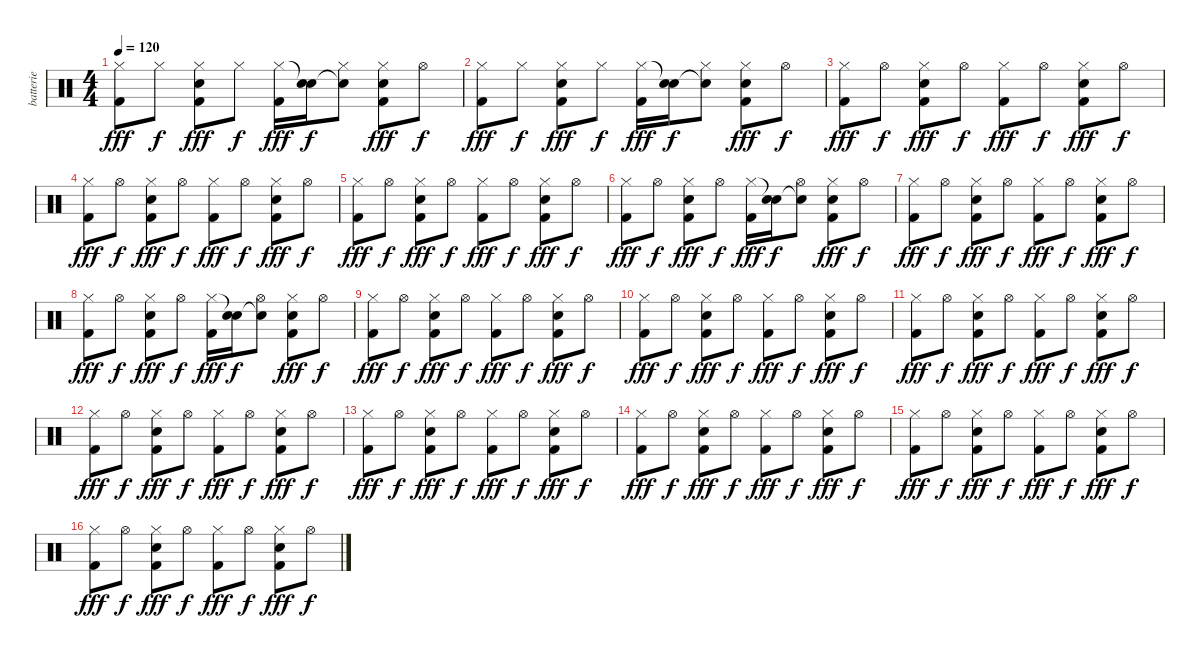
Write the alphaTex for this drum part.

\track ("batterie" "batterie") {instrument percussion}
\staff {score}
\articulation defaults
\ts (4 4)
\tempo 120
\clef neutral
\ks c
("Hi-Hat (closed)" "Kick (hit) 2").8{dy fff} "Hi-Hat (closed)".8{dy f} ("Hi-Hat (closed)" "Electric Snare (hit)" "Kick (hit) 2").8{dy fff} "Hi-Hat (closed)".8{dy f} ("Hi-Hat (closed)" "Kick (hit) 2").16{dy fff} ("Snare (hit)"{t} "Electric Snare (hit)").16{dy f} ("Hi-Hat (closed)" "Electric Snare (hit)"{t}).8 ("Hi-Hat (closed)" "Electric Snare (hit)" "Kick (hit) 2").8{dy fff} "Hi-Hat (open)".8{dy f} |
("Hi-Hat (closed)" "Kick (hit) 2").8{dy fff} "Hi-Hat (closed)".8{dy f} ("Hi-Hat (closed)" "Electric Snare (hit)" "Kick (hit) 2").8{dy fff} "Hi-Hat (closed)".8{dy f} ("Hi-Hat (closed)" "Kick (hit) 2").16{dy fff} ("Snare (hit)"{t} "Electric Snare (hit)").16{dy f} ("Hi-Hat (closed)" "Electric Snare (hit)"{t}).8 ("Hi-Hat (closed)" "Electric Snare (hit)" "Kick (hit) 2").8{dy fff} "Hi-Hat (open)".8{dy f} |
("Hi-Hat (closed)" "Kick (hit) 2").8{dy fff} "Hi-Hat (open)".8{dy f} ("Hi-Hat (closed)" "Electric Snare (hit)" "Kick (hit) 2").8{dy fff} "Hi-Hat (open)".8{dy f} ("Hi-Hat (closed)" "Kick (hit) 2").8{dy fff} "Hi-Hat (open)".8{dy f} ("Hi-Hat (closed)" "Electric Snare (hit)" "Kick (hit) 2").8{dy fff} "Hi-Hat (open)".8{dy f} |
("Hi-Hat (closed)" "Kick (hit) 2").8{dy fff} "Hi-Hat (open)".8{dy f} ("Hi-Hat (closed)" "Electric Snare (hit)" "Kick (hit) 2").8{dy fff} "Hi-Hat (open)".8{dy f} ("Hi-Hat (closed)" "Kick (hit) 2").8{dy fff} "Hi-Hat (open)".8{dy f} ("Hi-Hat (closed)" "Electric Snare (hit)" "Kick (hit) 2").8{dy fff} "Hi-Hat (open)".8{dy f} |
("Hi-Hat (closed)" "Kick (hit) 2").8{dy fff} "Hi-Hat (open)".8{dy f} ("Hi-Hat (closed)" "Electric Snare (hit)" "Kick (hit) 2").8{dy fff} "Hi-Hat (open)".8{dy f} ("Hi-Hat (closed)" "Kick (hit) 2").8{dy fff} "Hi-Hat (open)".8{dy f} ("Hi-Hat (closed)" "Electric Snare (hit)" "Kick (hit) 2").8{dy fff} "Hi-Hat (open)".8{dy f} |
("Hi-Hat (closed)" "Kick (hit) 2").8{dy fff} "Hi-Hat (open)".8{dy f} ("Hi-Hat (closed)" "Electric Snare (hit)" "Kick (hit) 2").8{dy fff} "Hi-Hat (open)".8{dy f} ("Hi-Hat (closed)" "Kick (hit) 2").16{dy fff} ("Snare (hit)"{t} "Electric Snare (hit)").16{dy f} ("Hi-Hat (open)" "Electric Snare (hit)"{t}).8 ("Hi-Hat (closed)" "Electric Snare (hit)" "Kick (hit) 2").8{dy fff} "Hi-Hat (open)".8{dy f} |
("Hi-Hat (closed)" "Kick (hit) 2").8{dy fff} "Hi-Hat (open)".8{dy f} ("Hi-Hat (closed)" "Electric Snare (hit)" "Kick (hit) 2").8{dy fff} "Hi-Hat (open)".8{dy f} ("Hi-Hat (closed)" "Kick (hit) 2").8{dy fff} "Hi-Hat (open)".8{dy f} ("Hi-Hat (closed)" "Electric Snare (hit)" "Kick (hit) 2").8{dy fff} "Hi-Hat (open)".8{dy f} |
("Hi-Hat (closed)" "Kick (hit) 2").8{dy fff} "Hi-Hat (open)".8{dy f} ("Hi-Hat (closed)" "Electric Snare (hit)" "Kick (hit) 2").8{dy fff} "Hi-Hat (open)".8{dy f} ("Hi-Hat (closed)" "Kick (hit) 2").16{dy fff} ("Snare (hit)"{t} "Electric Snare (hit)").16{dy f} ("Hi-Hat (open)" "Electric Snare (hit)"{t}).8 ("Hi-Hat (closed)" "Electric Snare (hit)" "Kick (hit) 2").8{dy fff} "Hi-Hat (open)".8{dy f} |
("Hi-Hat (closed)" "Kick (hit) 2").8{dy fff} "Hi-Hat (open)".8{dy f} ("Hi-Hat (closed)" "Electric Snare (hit)" "Kick (hit) 2").8{dy fff} "Hi-Hat (open)".8{dy f} ("Hi-Hat (closed)" "Kick (hit) 2").8{dy fff} "Hi-Hat (open)".8{dy f} ("Hi-Hat (closed)" "Electric Snare (hit)" "Kick (hit) 2").8{dy fff} "Hi-Hat (open)".8{dy f} |
("Hi-Hat (closed)" "Kick (hit) 2").8{dy fff} "Hi-Hat (open)".8{dy f} ("Hi-Hat (closed)" "Electric Snare (hit)" "Kick (hit) 2").8{dy fff} "Hi-Hat (open)".8{dy f} ("Hi-Hat (closed)" "Kick (hit) 2").8{dy fff} "Hi-Hat (open)".8{dy f} ("Hi-Hat (closed)" "Electric Snare (hit)" "Kick (hit) 2").8{dy fff} "Hi-Hat (open)".8{dy f} |
("Hi-Hat (closed)" "Kick (hit) 2").8{dy fff} "Hi-Hat (open)".8{dy f} ("Hi-Hat (closed)" "Electric Snare (hit)" "Kick (hit) 2").8{dy fff} "Hi-Hat (open)".8{dy f} ("Hi-Hat (closed)" "Kick (hit) 2").8{dy fff} "Hi-Hat (open)".8{dy f} ("Hi-Hat (closed)" "Electric Snare (hit)" "Kick (hit) 2").8{dy fff} "Hi-Hat (open)".8{dy f} |
("Hi-Hat (closed)" "Kick (hit) 2").8{dy fff} "Hi-Hat (open)".8{dy f} ("Hi-Hat (closed)" "Electric Snare (hit)" "Kick (hit) 2").8{dy fff} "Hi-Hat (open)".8{dy f} ("Hi-Hat (closed)" "Kick (hit) 2").8{dy fff} "Hi-Hat (open)".8{dy f} ("Hi-Hat (closed)" "Electric Snare (hit)" "Kick (hit) 2").8{dy fff} "Hi-Hat (open)".8{dy f} |
("Hi-Hat (closed)" "Kick (hit) 2").8{dy fff} "Hi-Hat (open)".8{dy f} ("Hi-Hat (closed)" "Electric Snare (hit)" "Kick (hit) 2").8{dy fff} "Hi-Hat (open)".8{dy f} ("Hi-Hat (closed)" "Kick (hit) 2").8{dy fff} "Hi-Hat (open)".8{dy f} ("Hi-Hat (closed)" "Electric Snare (hit)" "Kick (hit) 2").8{dy fff} "Hi-Hat (open)".8{dy f} |
("Hi-Hat (closed)" "Kick (hit) 2").8{dy fff} "Hi-Hat (open)".8{dy f} ("Hi-Hat (closed)" "Electric Snare (hit)" "Kick (hit) 2").8{dy fff} "Hi-Hat (open)".8{dy f} ("Hi-Hat (closed)" "Kick (hit) 2").8{dy fff} "Hi-Hat (open)".8{dy f} ("Hi-Hat (closed)" "Electric Snare (hit)" "Kick (hit) 2").8{dy fff} "Hi-Hat (open)".8{dy f} |
("Hi-Hat (closed)" "Kick (hit) 2").8{dy fff} "Hi-Hat (open)".8{dy f} ("Hi-Hat (closed)" "Electric Snare (hit)" "Kick (hit) 2").8{dy fff} "Hi-Hat (open)".8{dy f} ("Hi-Hat (closed)" "Kick (hit) 2").8{dy fff} "Hi-Hat (open)".8{dy f} ("Hi-Hat (closed)" "Electric Snare (hit)" "Kick (hit) 2").8{dy fff} "Hi-Hat (open)".8{dy f} |
("Hi-Hat (closed)" "Kick (hit) 2").8{dy fff} "Hi-Hat (open)".8{dy f} ("Hi-Hat (closed)" "Electric Snare (hit)" "Kick (hit) 2").8{dy fff} "Hi-Hat (open)".8{dy f} ("Hi-Hat (closed)" "Kick (hit) 2").8{dy fff} "Hi-Hat (open)".8{dy f} ("Hi-Hat (closed)" "Electric Snare (hit)" "Kick (hit) 2").8{dy fff} "Hi-Hat (open)".8{dy f}
